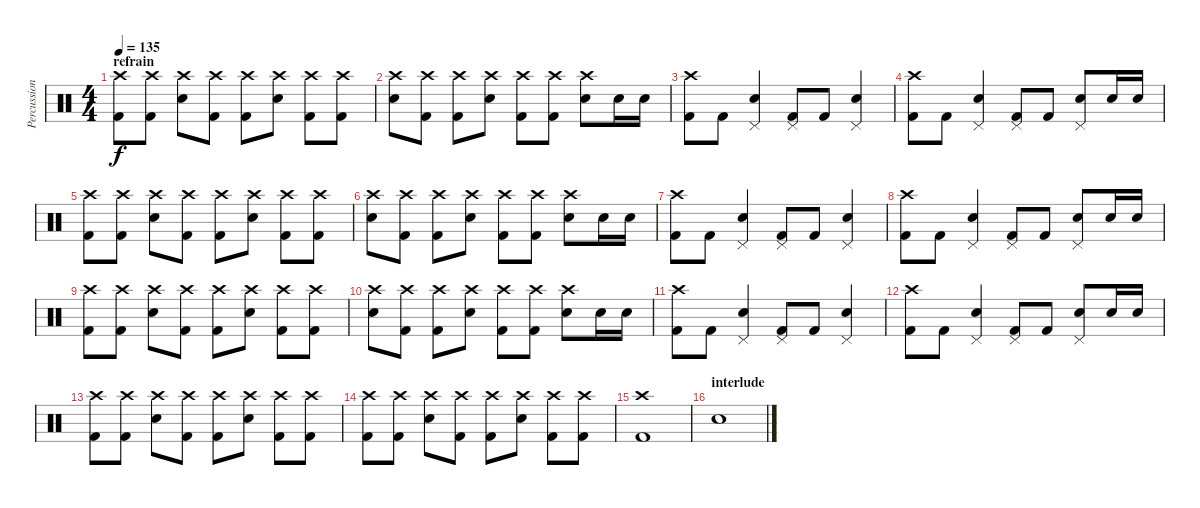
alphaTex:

\track ("Percussions" "Percussion") {instrument percussion}
\staff {score}
\articulation defaults
\ts (4 4)
\section ("" "refrain")
\tempo 135
\clef neutral
\ks c
("Crash high (hit)" "Kick (hit) 2").8{dy f} ("Crash high (hit)" "Kick (hit) 2").8 ("Crash high (hit)" "Snare (hit) 2").8 ("Crash high (hit)" "Kick (hit) 2").8 ("Crash high (hit)" "Kick (hit) 2").8 ("Crash high (hit)" "Snare (hit) 2").8 ("Crash high (hit)" "Kick (hit) 2").8 ("Crash high (hit)" "Kick (hit) 2").8 |
("Crash high (hit)" "Snare (hit) 2").8 ("Crash high (hit)" "Kick (hit) 2").8 ("Crash high (hit)" "Kick (hit) 2").8 ("Crash high (hit)" "Snare (hit) 2").8 ("Crash high (hit)" "Kick (hit) 2").8 ("Crash high (hit)" "Kick (hit) 2").8 ("Crash high (hit)" "Snare (hit) 2").8 "Snare (hit) 2".16 "Snare (hit) 2".16 |
("Crash high (hit)" "Kick (hit) 2").8 "Kick (hit) 2".8 ("Pedal Hi-Hat (hit)" "Snare (hit) 2").4 ("Pedal Hi-Hat (hit)" "Kick (hit) 2").8 "Kick (hit) 2".8 ("Pedal Hi-Hat (hit)" "Snare (hit) 2").4 |
("Crash high (hit)" "Kick (hit) 2").8 "Kick (hit) 2".8 ("Pedal Hi-Hat (hit)" "Snare (hit) 2").4 ("Pedal Hi-Hat (hit)" "Kick (hit) 2").8 "Kick (hit) 2".8 ("Pedal Hi-Hat (hit)" "Snare (hit) 2").8 "Snare (hit) 2".16 "Snare (hit) 2".16 |
("Crash high (hit)" "Kick (hit) 2").8 ("Crash high (hit)" "Kick (hit) 2").8 ("Crash high (hit)" "Snare (hit) 2").8 ("Crash high (hit)" "Kick (hit) 2").8 ("Crash high (hit)" "Kick (hit) 2").8 ("Crash high (hit)" "Snare (hit) 2").8 ("Crash high (hit)" "Kick (hit) 2").8 ("Crash high (hit)" "Kick (hit) 2").8 |
("Crash high (hit)" "Snare (hit) 2").8 ("Crash high (hit)" "Kick (hit) 2").8 ("Crash high (hit)" "Kick (hit) 2").8 ("Crash high (hit)" "Snare (hit) 2").8 ("Crash high (hit)" "Kick (hit) 2").8 ("Crash high (hit)" "Kick (hit) 2").8 ("Crash high (hit)" "Snare (hit) 2").8 "Snare (hit) 2".16 "Snare (hit) 2".16 |
("Crash high (hit)" "Kick (hit) 2").8 "Kick (hit) 2".8 ("Pedal Hi-Hat (hit)" "Snare (hit) 2").4 ("Pedal Hi-Hat (hit)" "Kick (hit) 2").8 "Kick (hit) 2".8 ("Pedal Hi-Hat (hit)" "Snare (hit) 2").4 |
("Crash high (hit)" "Kick (hit) 2").8 "Kick (hit) 2".8 ("Pedal Hi-Hat (hit)" "Snare (hit) 2").4 ("Pedal Hi-Hat (hit)" "Kick (hit) 2").8 "Kick (hit) 2".8 ("Pedal Hi-Hat (hit)" "Snare (hit) 2").8 "Snare (hit) 2".16 "Snare (hit) 2".16 |
("Crash high (hit)" "Kick (hit) 2").8 ("Crash high (hit)" "Kick (hit) 2").8 ("Crash high (hit)" "Snare (hit) 2").8 ("Crash high (hit)" "Kick (hit) 2").8 ("Crash high (hit)" "Kick (hit) 2").8 ("Crash high (hit)" "Snare (hit) 2").8 ("Crash high (hit)" "Kick (hit) 2").8 ("Crash high (hit)" "Kick (hit) 2").8 |
("Crash high (hit)" "Snare (hit) 2").8 ("Crash high (hit)" "Kick (hit) 2").8 ("Crash high (hit)" "Kick (hit) 2").8 ("Crash high (hit)" "Snare (hit) 2").8 ("Crash high (hit)" "Kick (hit) 2").8 ("Crash high (hit)" "Kick (hit) 2").8 ("Crash high (hit)" "Snare (hit) 2").8 "Snare (hit) 2".16 "Snare (hit) 2".16 |
("Crash high (hit)" "Kick (hit) 2").8 "Kick (hit) 2".8 ("Pedal Hi-Hat (hit)" "Snare (hit) 2").4 ("Pedal Hi-Hat (hit)" "Kick (hit) 2").8 "Kick (hit) 2".8 ("Pedal Hi-Hat (hit)" "Snare (hit) 2").4 |
("Crash high (hit)" "Kick (hit) 2").8 "Kick (hit) 2".8 ("Pedal Hi-Hat (hit)" "Snare (hit) 2").4 ("Pedal Hi-Hat (hit)" "Kick (hit) 2").8 "Kick (hit) 2".8 ("Pedal Hi-Hat (hit)" "Snare (hit) 2").8 "Snare (hit) 2".16 "Snare (hit) 2".16 |
("Crash high (hit)" "Kick (hit) 2").8 ("Crash high (hit)" "Kick (hit) 2").8 ("Crash high (hit)" "Snare (hit) 2").8 ("Crash high (hit)" "Kick (hit) 2").8 ("Crash high (hit)" "Kick (hit) 2").8 ("Crash high (hit)" "Snare (hit) 2").8 ("Crash high (hit)" "Kick (hit) 2").8 ("Crash high (hit)" "Kick (hit) 2").8 |
("Crash high (hit)" "Kick (hit) 2").8 ("Crash high (hit)" "Kick (hit) 2").8 ("Crash high (hit)" "Snare (hit) 2").8 ("Crash high (hit)" "Kick (hit) 2").8 ("Crash high (hit)" "Kick (hit) 2").8 ("Crash high (hit)" "Snare (hit) 2").8 ("Crash high (hit)" "Kick (hit) 2").8 ("Crash high (hit)" "Kick (hit) 2").8 |
("Crash high (hit)" "Kick (hit) 2").1 |
\section ("" "interlude")
"Snare (hit) 2".1
